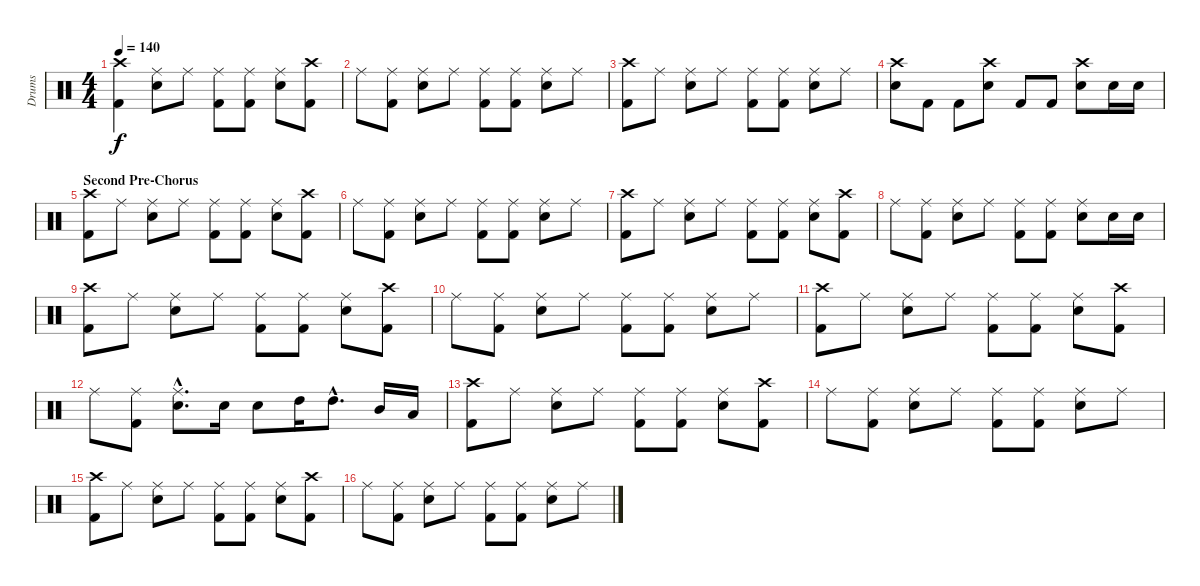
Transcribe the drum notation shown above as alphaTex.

\track ("Drums" "Drums") {instrument percussion}
\staff {score}
\articulation defaults
\ts (4 4)
\tempo 140
\clef neutral
\ks c
("Crash high (hit)" "Kick (hit) 2").4{dy f} ("Ride (middle)" "Electric Snare (hit)").8 "Ride (middle)".8 ("Ride (middle)" "Kick (hit) 2").8 ("Ride (middle)" "Kick (hit) 2").8 ("Ride (middle)" "Electric Snare (hit)").8 ("Crash high (hit)" "Kick (hit) 2").8 |
"Ride (middle)".8 ("Ride (middle)" "Kick (hit) 2").8 ("Ride (middle)" "Electric Snare (hit)").8 "Ride (middle)".8 ("Ride (middle)" "Kick (hit) 2").8 ("Ride (middle)" "Kick (hit) 2").8 ("Ride (middle)" "Electric Snare (hit)").8 "Ride (middle)".8 |
("Crash high (hit)" "Kick (hit) 2").8 "Ride (middle)".8 ("Ride (middle)" "Electric Snare (hit)").8 "Ride (middle)".8 ("Ride (middle)" "Kick (hit) 2").8 ("Ride (middle)" "Kick (hit) 2").8 ("Ride (middle)" "Electric Snare (hit)").8 "Ride (middle)".8 |
("Crash high (hit)" "Electric Snare (hit)").8 "Kick (hit) 2".8 "Kick (hit) 2".8 ("Crash high (hit)" "Electric Snare (hit)").8 "Kick (hit) 2".8 "Kick (hit) 2".8 ("Crash high (hit)" "Electric Snare (hit)").8 "Electric Snare (hit)".16 "Electric Snare (hit)".16 |
\section ("" "Second Pre-Chorus")
("Crash high (hit)" "Kick (hit) 2").8 "Ride (middle)".8 ("Ride (middle)" "Electric Snare (hit)").8 "Ride (middle)".8 ("Ride (middle)" "Kick (hit) 2").8 ("Ride (middle)" "Kick (hit) 2").8 ("Ride (middle)" "Electric Snare (hit)").8 ("Crash high (hit)" "Kick (hit) 2").8 |
"Ride (middle)".8 ("Ride (middle)" "Kick (hit) 2").8 ("Ride (middle)" "Electric Snare (hit)").8 "Ride (middle)".8 ("Ride (middle)" "Kick (hit) 2").8 ("Ride (middle)" "Kick (hit) 2").8 ("Ride (middle)" "Electric Snare (hit)").8 "Ride (middle)".8 |
("Crash high (hit)" "Kick (hit) 2").8 "Ride (middle)".8 ("Ride (middle)" "Electric Snare (hit)").8 "Ride (middle)".8 ("Ride (middle)" "Kick (hit) 2").8 ("Ride (middle)" "Kick (hit) 2").8 ("Ride (middle)" "Electric Snare (hit)").8 ("Crash high (hit)" "Kick (hit) 2").8 |
"Ride (middle)".8 ("Ride (middle)" "Kick (hit) 2").8 ("Ride (middle)" "Electric Snare (hit)").8 "Ride (middle)".8 ("Ride (middle)" "Kick (hit) 2").8 ("Ride (middle)" "Kick (hit) 2").8 ("Ride (middle)" "Electric Snare (hit)").8 "Electric Snare (hit)".16 "Electric Snare (hit)".16 |
("Crash high (hit)" "Kick (hit) 2").8 "Ride (middle)".8 ("Ride (middle)" "Electric Snare (hit)").8 "Ride (middle)".8 ("Ride (middle)" "Kick (hit) 2").8 ("Ride (middle)" "Kick (hit) 2").8 ("Ride (middle)" "Electric Snare (hit)").8 ("Crash high (hit)" "Kick (hit) 2").8 |
"Ride (middle)".8 ("Ride (middle)" "Kick (hit) 2").8 ("Ride (middle)" "Electric Snare (hit)").8 "Ride (middle)".8 ("Ride (middle)" "Kick (hit) 2").8 ("Ride (middle)" "Kick (hit) 2").8 ("Ride (middle)" "Electric Snare (hit)").8 "Ride (middle)".8 |
("Crash high (hit)" "Kick (hit) 2").8 "Ride (middle)".8 ("Ride (middle)" "Electric Snare (hit)").8 "Ride (middle)".8 ("Ride (middle)" "Kick (hit) 2").8 ("Ride (middle)" "Kick (hit) 2").8 ("Ride (middle)" "Electric Snare (hit)").8 ("Crash high (hit)" "Kick (hit) 2").8 |
"Ride (middle)".8 ("Ride (middle)" "Kick (hit) 2").8 ("Ride (middle)"{hac} "Electric Snare (hit)"{hac}).8{d} "Electric Snare (hit)".16 "Electric Snare (hit)".8 "High Tom (hit)".16 "High Tom (hit)"{hac}.8{d} "Mid Tom (hit)".16 "Low Floor Tom (hit)".16 |
("Crash high (hit)" "Kick (hit) 2").8 "Ride (middle)".8 ("Ride (middle)" "Electric Snare (hit)").8 "Ride (middle)".8 ("Ride (middle)" "Kick (hit) 2").8 ("Ride (middle)" "Kick (hit) 2").8 ("Ride (middle)" "Electric Snare (hit)").8 ("Crash high (hit)" "Kick (hit) 2").8 |
"Ride (middle)".8 ("Ride (middle)" "Kick (hit) 2").8 ("Ride (middle)" "Electric Snare (hit)").8 "Ride (middle)".8 ("Ride (middle)" "Kick (hit) 2").8 ("Ride (middle)" "Kick (hit) 2").8 ("Ride (middle)" "Electric Snare (hit)").8 "Ride (middle)".8 |
("Crash high (hit)" "Kick (hit) 2").8 "Ride (middle)".8 ("Ride (middle)" "Electric Snare (hit)").8 "Ride (middle)".8 ("Ride (middle)" "Kick (hit) 2").8 ("Ride (middle)" "Kick (hit) 2").8 ("Ride (middle)" "Electric Snare (hit)").8 ("Crash high (hit)" "Kick (hit) 2").8 |
"Ride (middle)".8 ("Ride (middle)" "Kick (hit) 2").8 ("Ride (middle)" "Electric Snare (hit)").8 "Ride (middle)".8 ("Ride (middle)" "Kick (hit) 2").8 ("Ride (middle)" "Kick (hit) 2").8 ("Ride (middle)" "Electric Snare (hit)").8 "Ride (middle)".8
